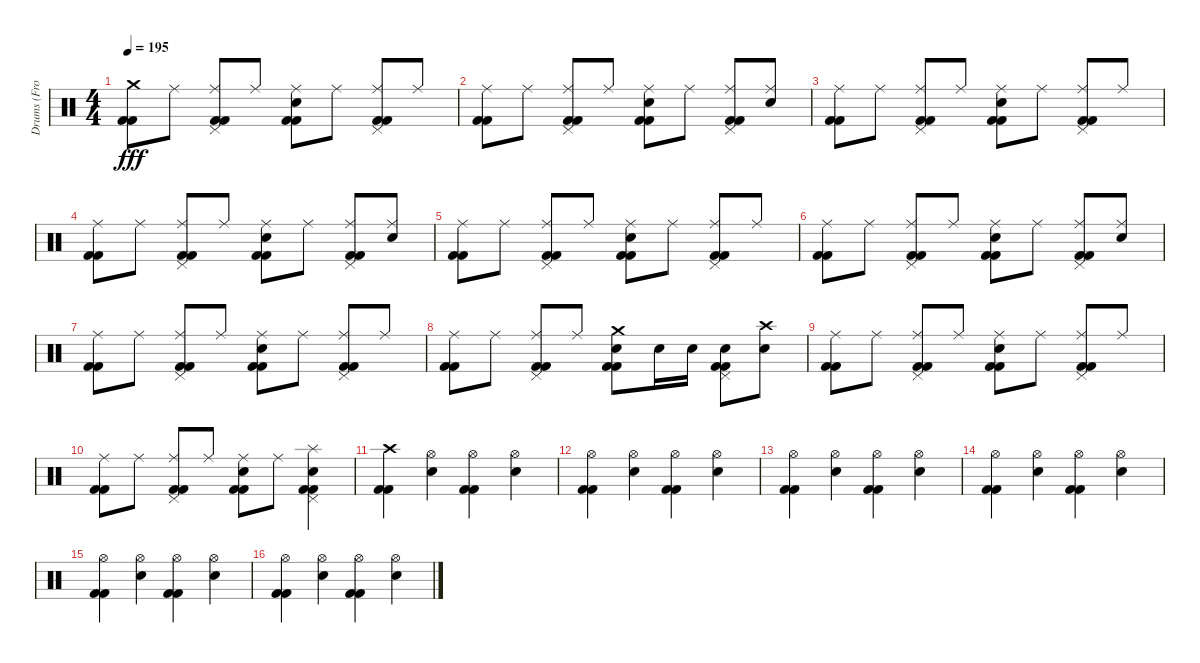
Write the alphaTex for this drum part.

\track ("Drums (From Other GP)" "Drums (Fro") {instrument percussion}
\staff {score}
\articulation defaults
\ts (4 4)
\tempo 195
\clef neutral
\ks c
("Crash medium (hit)" "Kick (hit) 2" "Kick (hit) 2").8{dy fff} "Ride (middle)".8 ("Ride (middle)" "Pedal Hi-Hat (hit)" "Kick (hit) 2" "Kick (hit) 2").8 "Ride (middle)".8 ("Ride (middle)" "Electric Snare (hit)" "Kick (hit) 2" "Kick (hit) 2").8 "Ride (middle)".8 ("Ride (middle)" "Pedal Hi-Hat (hit)" "Kick (hit) 2" "Kick (hit) 2").8 "Ride (middle)".8 |
("Ride (middle)" "Kick (hit) 2" "Kick (hit) 2").8 "Ride (middle)".8 ("Ride (middle)" "Pedal Hi-Hat (hit)" "Kick (hit) 2" "Kick (hit) 2").8 "Ride (middle)".8 ("Ride (middle)" "Electric Snare (hit)" "Kick (hit) 2" "Kick (hit) 2").8 "Ride (middle)".8 ("Ride (middle)" "Pedal Hi-Hat (hit)" "Kick (hit) 2" "Kick (hit) 2").8 ("Ride (middle)" "Electric Snare (hit)").8 |
("Ride (middle)" "Kick (hit) 2" "Kick (hit) 2").8 "Ride (middle)".8 ("Ride (middle)" "Pedal Hi-Hat (hit)" "Kick (hit) 2" "Kick (hit) 2").8 "Ride (middle)".8 ("Ride (middle)" "Electric Snare (hit)" "Kick (hit) 2" "Kick (hit) 2").8 "Ride (middle)".8 ("Ride (middle)" "Pedal Hi-Hat (hit)" "Kick (hit) 2" "Kick (hit) 2").8 "Ride (middle)".8 |
("Ride (middle)" "Kick (hit) 2" "Kick (hit) 2").8 "Ride (middle)".8 ("Ride (middle)" "Pedal Hi-Hat (hit)" "Kick (hit) 2" "Kick (hit) 2").8 "Ride (middle)".8 ("Ride (middle)" "Electric Snare (hit)" "Kick (hit) 2" "Kick (hit) 2").8 "Ride (middle)".8 ("Ride (middle)" "Pedal Hi-Hat (hit)" "Kick (hit) 2" "Kick (hit) 2").8 ("Ride (middle)" "Electric Snare (hit)").8 |
("Ride (middle)" "Kick (hit) 2" "Kick (hit) 2").8 "Ride (middle)".8 ("Ride (middle)" "Pedal Hi-Hat (hit)" "Kick (hit) 2" "Kick (hit) 2").8 "Ride (middle)".8 ("Ride (middle)" "Electric Snare (hit)" "Kick (hit) 2" "Kick (hit) 2").8 "Ride (middle)".8 ("Ride (middle)" "Pedal Hi-Hat (hit)" "Kick (hit) 2" "Kick (hit) 2").8 "Ride (middle)".8 |
("Ride (middle)" "Kick (hit) 2" "Kick (hit) 2").8 "Ride (middle)".8 ("Ride (middle)" "Pedal Hi-Hat (hit)" "Kick (hit) 2" "Kick (hit) 2").8 "Ride (middle)".8 ("Ride (middle)" "Electric Snare (hit)" "Kick (hit) 2" "Kick (hit) 2").8 "Ride (middle)".8 ("Ride (middle)" "Pedal Hi-Hat (hit)" "Kick (hit) 2" "Kick (hit) 2").8 ("Ride (middle)" "Electric Snare (hit)").8 |
("Ride (middle)" "Kick (hit) 2" "Kick (hit) 2").8 "Ride (middle)".8 ("Ride (middle)" "Pedal Hi-Hat (hit)" "Kick (hit) 2" "Kick (hit) 2").8 "Ride (middle)".8 ("Ride (middle)" "Electric Snare (hit)" "Kick (hit) 2" "Kick (hit) 2").8 "Ride (middle)".8 ("Ride (middle)" "Pedal Hi-Hat (hit)" "Kick (hit) 2" "Kick (hit) 2").8 "Ride (middle)".8 |
("Ride (middle)" "Kick (hit) 2" "Kick (hit) 2").8 "Ride (middle)".8 ("Ride (middle)" "Pedal Hi-Hat (hit)" "Kick (hit) 2" "Kick (hit) 2").8 "Ride (middle)".8 ("Crash medium (hit)" "Electric Snare (hit)" "Kick (hit) 2" "Kick (hit) 2").8 "Electric Snare (hit)".16 "Electric Snare (hit)".16 ("Electric Snare (hit)" "Pedal Hi-Hat (hit)" "Kick (hit) 2" "Kick (hit) 2").8 ("Crash high (hit)" "Electric Snare (hit)").8 |
("Ride (middle)" "Kick (hit) 2" "Kick (hit) 2").8 "Ride (middle)".8 ("Ride (middle)" "Pedal Hi-Hat (hit)" "Kick (hit) 2" "Kick (hit) 2").8 "Ride (middle)".8 ("Ride (middle)" "Electric Snare (hit)" "Kick (hit) 2" "Kick (hit) 2").8 "Ride (middle)".8 ("Ride (middle)" "Pedal Hi-Hat (hit)" "Kick (hit) 2" "Kick (hit) 2").8 "Ride (middle)".8 |
("Ride (middle)" "Kick (hit) 2" "Kick (hit) 2").8 "Ride (middle)".8 ("Ride (middle)" "Pedal Hi-Hat (hit)" "Kick (hit) 2" "Kick (hit) 2").8 "Ride (middle)".8 ("Ride (middle)" "Electric Snare (hit)" "Kick (hit) 2" "Kick (hit) 2").8 "Ride (middle)".8 ("Splash (hit)" "Electric Snare (hit)" "Pedal Hi-Hat (hit)" "Kick (hit) 2" "Kick (hit) 2").4 |
("Crash high (hit)" "Kick (hit) 2" "Kick (hit) 2").4 ("Hi-Hat (open)" "Electric Snare (hit)").4 ("Hi-Hat (open)" "Kick (hit) 2" "Kick (hit) 2").4 ("Hi-Hat (open)" "Electric Snare (hit)").4 |
("Hi-Hat (open)" "Kick (hit) 2" "Kick (hit) 2").4 ("Hi-Hat (open)" "Electric Snare (hit)").4 ("Hi-Hat (open)" "Kick (hit) 2" "Kick (hit) 2").4 ("Hi-Hat (open)" "Electric Snare (hit)").4 |
("Hi-Hat (open)" "Kick (hit) 2" "Kick (hit) 2").4 ("Hi-Hat (open)" "Electric Snare (hit)").4 ("Hi-Hat (open)" "Kick (hit) 2" "Kick (hit) 2").4 ("Hi-Hat (open)" "Electric Snare (hit)").4 |
("Hi-Hat (open)" "Kick (hit) 2" "Kick (hit) 2").4 ("Hi-Hat (open)" "Electric Snare (hit)").4 ("Hi-Hat (open)" "Kick (hit) 2" "Kick (hit) 2").4 ("Hi-Hat (open)" "Electric Snare (hit)").4 |
("Hi-Hat (open)" "Kick (hit) 2" "Kick (hit) 2").4 ("Hi-Hat (open)" "Electric Snare (hit)").4 ("Hi-Hat (open)" "Kick (hit) 2" "Kick (hit) 2").4 ("Hi-Hat (open)" "Electric Snare (hit)").4 |
("Hi-Hat (open)" "Kick (hit) 2" "Kick (hit) 2").4 ("Hi-Hat (open)" "Electric Snare (hit)").4 ("Hi-Hat (open)" "Kick (hit) 2" "Kick (hit) 2").4 ("Hi-Hat (open)" "Electric Snare (hit)").4
